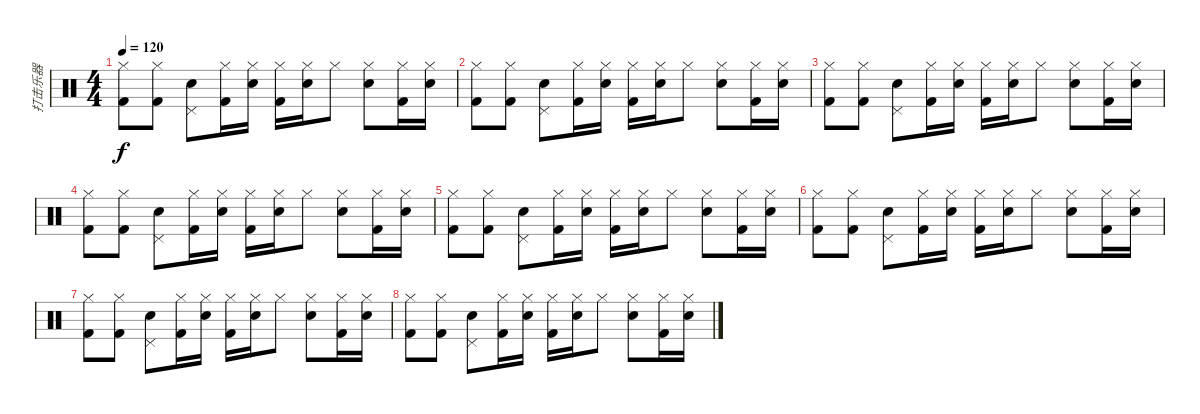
\track ("打击乐器" "打击乐器") {instrument percussion}
\staff {score}
\articulation defaults
\ts (4 4)
\tempo 120
\clef neutral
\ks c
("Hi-Hat (closed)" "Kick (hit) 2").8{dy f} ("Hi-Hat (closed)" "Kick (hit) 2").8 ("Pedal Hi-Hat (hit)" "Snare (hit) 2").8 ("Hi-Hat (closed)" "Kick (hit) 2").16 ("Hi-Hat (closed)" "Snare (hit) 2").16 ("Hi-Hat (closed)" "Kick (hit) 2").16 ("Hi-Hat (closed)" "Snare (hit) 2").16 "Hi-Hat (closed)".8 ("Hi-Hat (closed)" "Snare (hit) 2").8 ("Hi-Hat (closed)" "Kick (hit) 2").16 ("Hi-Hat (closed)" "Snare (hit) 2").16 |
("Hi-Hat (closed)" "Kick (hit) 2").8 ("Hi-Hat (closed)" "Kick (hit) 2").8 ("Pedal Hi-Hat (hit)" "Snare (hit) 2").8 ("Hi-Hat (closed)" "Kick (hit) 2").16 ("Hi-Hat (closed)" "Snare (hit) 2").16 ("Hi-Hat (closed)" "Kick (hit) 2").16 ("Hi-Hat (closed)" "Snare (hit) 2").16 "Hi-Hat (closed)".8 ("Hi-Hat (closed)" "Snare (hit) 2").8 ("Hi-Hat (closed)" "Kick (hit) 2").16 ("Hi-Hat (closed)" "Snare (hit) 2").16 |
("Hi-Hat (closed)" "Kick (hit) 2").8 ("Hi-Hat (closed)" "Kick (hit) 2").8 ("Pedal Hi-Hat (hit)" "Snare (hit) 2").8 ("Hi-Hat (closed)" "Kick (hit) 2").16 ("Hi-Hat (closed)" "Snare (hit) 2").16 ("Hi-Hat (closed)" "Kick (hit) 2").16 ("Hi-Hat (closed)" "Snare (hit) 2").16 "Hi-Hat (closed)".8 ("Hi-Hat (closed)" "Snare (hit) 2").8 ("Hi-Hat (closed)" "Kick (hit) 2").16 ("Hi-Hat (closed)" "Snare (hit) 2").16 |
("Hi-Hat (closed)" "Kick (hit) 2").8 ("Hi-Hat (closed)" "Kick (hit) 2").8 ("Pedal Hi-Hat (hit)" "Snare (hit) 2").8 ("Hi-Hat (closed)" "Kick (hit) 2").16 ("Hi-Hat (closed)" "Snare (hit) 2").16 ("Hi-Hat (closed)" "Kick (hit) 2").16 ("Hi-Hat (closed)" "Snare (hit) 2").16 "Hi-Hat (closed)".8 ("Hi-Hat (closed)" "Snare (hit) 2").8 ("Hi-Hat (closed)" "Kick (hit) 2").16 ("Hi-Hat (closed)" "Snare (hit) 2").16 |
("Hi-Hat (closed)" "Kick (hit) 2").8 ("Hi-Hat (closed)" "Kick (hit) 2").8 ("Pedal Hi-Hat (hit)" "Snare (hit) 2").8 ("Hi-Hat (closed)" "Kick (hit) 2").16 ("Hi-Hat (closed)" "Snare (hit) 2").16 ("Hi-Hat (closed)" "Kick (hit) 2").16 ("Hi-Hat (closed)" "Snare (hit) 2").16 "Hi-Hat (closed)".8 ("Hi-Hat (closed)" "Snare (hit) 2").8 ("Hi-Hat (closed)" "Kick (hit) 2").16 ("Hi-Hat (closed)" "Snare (hit) 2").16 |
("Hi-Hat (closed)" "Kick (hit) 2").8 ("Hi-Hat (closed)" "Kick (hit) 2").8 ("Pedal Hi-Hat (hit)" "Snare (hit) 2").8 ("Hi-Hat (closed)" "Kick (hit) 2").16 ("Hi-Hat (closed)" "Snare (hit) 2").16 ("Hi-Hat (closed)" "Kick (hit) 2").16 ("Hi-Hat (closed)" "Snare (hit) 2").16 "Hi-Hat (closed)".8 ("Hi-Hat (closed)" "Snare (hit) 2").8 ("Hi-Hat (closed)" "Kick (hit) 2").16 ("Hi-Hat (closed)" "Snare (hit) 2").16 |
("Hi-Hat (closed)" "Kick (hit) 2").8 ("Hi-Hat (closed)" "Kick (hit) 2").8 ("Pedal Hi-Hat (hit)" "Snare (hit) 2").8 ("Hi-Hat (closed)" "Kick (hit) 2").16 ("Hi-Hat (closed)" "Snare (hit) 2").16 ("Hi-Hat (closed)" "Kick (hit) 2").16 ("Hi-Hat (closed)" "Snare (hit) 2").16 "Hi-Hat (closed)".8 ("Hi-Hat (closed)" "Snare (hit) 2").8 ("Hi-Hat (closed)" "Kick (hit) 2").16 ("Hi-Hat (closed)" "Snare (hit) 2").16 |
("Hi-Hat (closed)" "Kick (hit) 2").8 ("Hi-Hat (closed)" "Kick (hit) 2").8 ("Pedal Hi-Hat (hit)" "Snare (hit) 2").8 ("Hi-Hat (closed)" "Kick (hit) 2").16 ("Hi-Hat (closed)" "Snare (hit) 2").16 ("Hi-Hat (closed)" "Kick (hit) 2").16 ("Hi-Hat (closed)" "Snare (hit) 2").16 "Hi-Hat (closed)".8 ("Hi-Hat (closed)" "Snare (hit) 2").8 ("Hi-Hat (closed)" "Kick (hit) 2").16 ("Hi-Hat (closed)" "Snare (hit) 2").16
